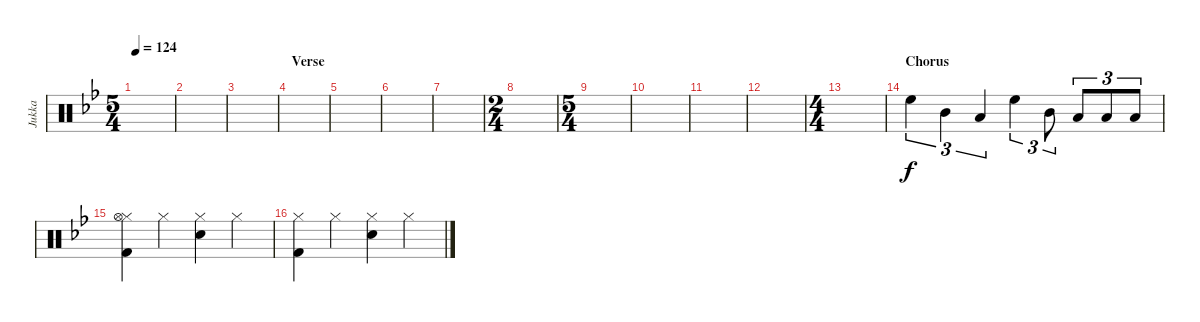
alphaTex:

\track ("Jukka" "Jukka") {instrument percussion}
\staff {score}
\articulation defaults
\ts (5 4)
\tempo 124
\clef neutral
\ks bb
|
|
|
\section ("" "Verse")
|
|
|
|
\ts (2 4)
|
\ts (5 4)
|
|
|
|
\ts (4 4)
|
\section ("" "Chorus")
"High Floor Tom (hit)".4{tu (3 2)} "Mid Tom (hit)".4{tu (3 2)} "Low Tom (hit)".4{tu (3 2)} "High Floor Tom (hit)".4{tu (3 2)} "Mid Tom (hit)".8{tu (3 2)} "Low Tom (hit)".8{tu (3 2)} "Low Tom (hit)".8{tu (3 2)} "Low Floor Tom (hit)".8{tu (3 2)} |
("Hi-Hat (closed)" "Hi-Hat (open)" "Kick (hit) 2").4 "Hi-Hat (closed)".4 ("Hi-Hat (closed)" "Snare (hit) 2").4 "Hi-Hat (closed)".4 |
("Hi-Hat (closed)" "Kick (hit) 2").4 "Hi-Hat (closed)".4 ("Hi-Hat (closed)" "Snare (hit) 2").4 "Hi-Hat (closed)".4
